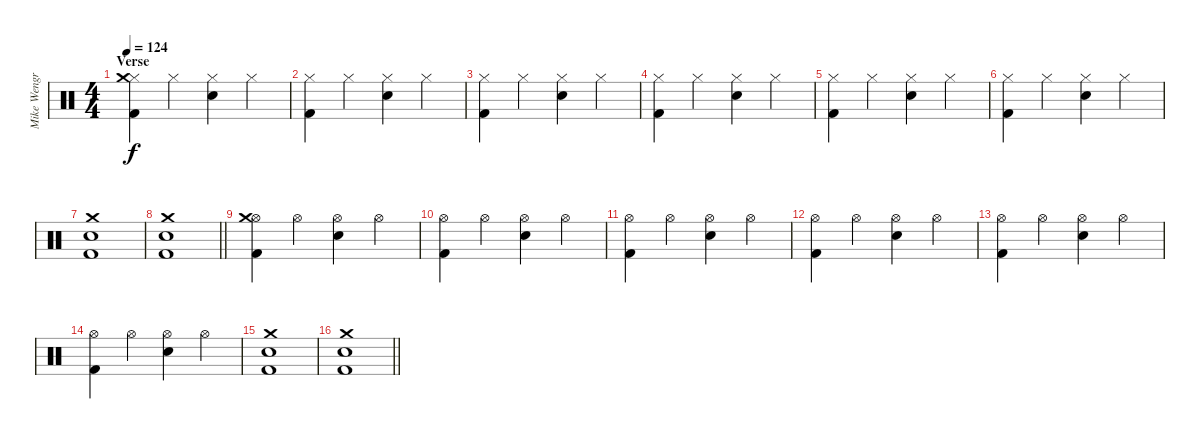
\track ("Mike Wengren" "Mike Wengr") {instrument percussion}
\staff {score}
\articulation defaults
\ts (4 4)
\section ("" "Verse")
\tempo 124
\clef neutral
\ks c
("Kick (hit) 2" "Hi-Hat (closed)" "Crash medium (hit)").4{dy f} "Hi-Hat (closed)".4 ("Electric Snare (hit)" "Hi-Hat (closed)").4 "Hi-Hat (closed)".4 |
("Kick (hit) 2" "Hi-Hat (closed)").4 "Hi-Hat (closed)".4 ("Electric Snare (hit)" "Hi-Hat (closed)").4 "Hi-Hat (closed)".4 |
("Kick (hit) 2" "Hi-Hat (closed)").4 "Hi-Hat (closed)".4 ("Electric Snare (hit)" "Hi-Hat (closed)").4 "Hi-Hat (closed)".4 |
("Kick (hit) 2" "Hi-Hat (closed)").4 "Hi-Hat (closed)".4 ("Electric Snare (hit)" "Hi-Hat (closed)").4 "Hi-Hat (closed)".4 |
("Kick (hit) 2" "Hi-Hat (closed)").4 "Hi-Hat (closed)".4 ("Electric Snare (hit)" "Hi-Hat (closed)").4 "Hi-Hat (closed)".4 |
("Kick (hit) 2" "Hi-Hat (closed)").4 "Hi-Hat (closed)".4 ("Electric Snare (hit)" "Hi-Hat (closed)").4 "Hi-Hat (closed)".4 |
("Kick (hit) 2" "Electric Snare (hit)" "Crash medium (hit)").1 |
\barLineRight lightlight
("Kick (hit) 2" "Electric Snare (hit)" "Crash medium (hit)").1 |
("Kick (hit) 2" "Hi-Hat (open)" "Crash medium (hit)").4 "Hi-Hat (open)".4 ("Electric Snare (hit)" "Hi-Hat (open)").4 "Hi-Hat (open)".4 |
("Kick (hit) 2" "Hi-Hat (open)").4 "Hi-Hat (open)".4 ("Electric Snare (hit)" "Hi-Hat (open)").4 "Hi-Hat (open)".4 |
("Kick (hit) 2" "Hi-Hat (open)").4 "Hi-Hat (open)".4 ("Electric Snare (hit)" "Hi-Hat (open)").4 "Hi-Hat (open)".4 |
("Kick (hit) 2" "Hi-Hat (open)").4 "Hi-Hat (open)".4 ("Electric Snare (hit)" "Hi-Hat (open)").4 "Hi-Hat (open)".4 |
("Kick (hit) 2" "Hi-Hat (open)").4 "Hi-Hat (open)".4 ("Electric Snare (hit)" "Hi-Hat (open)").4 "Hi-Hat (open)".4 |
("Kick (hit) 2" "Hi-Hat (open)").4 "Hi-Hat (open)".4 ("Electric Snare (hit)" "Hi-Hat (open)").4 "Hi-Hat (open)".4 |
("Kick (hit) 2" "Electric Snare (hit)" "Crash medium (hit)").1 |
\barLineRight lightlight
("Kick (hit) 2" "Electric Snare (hit)" "Crash medium (hit)").1
